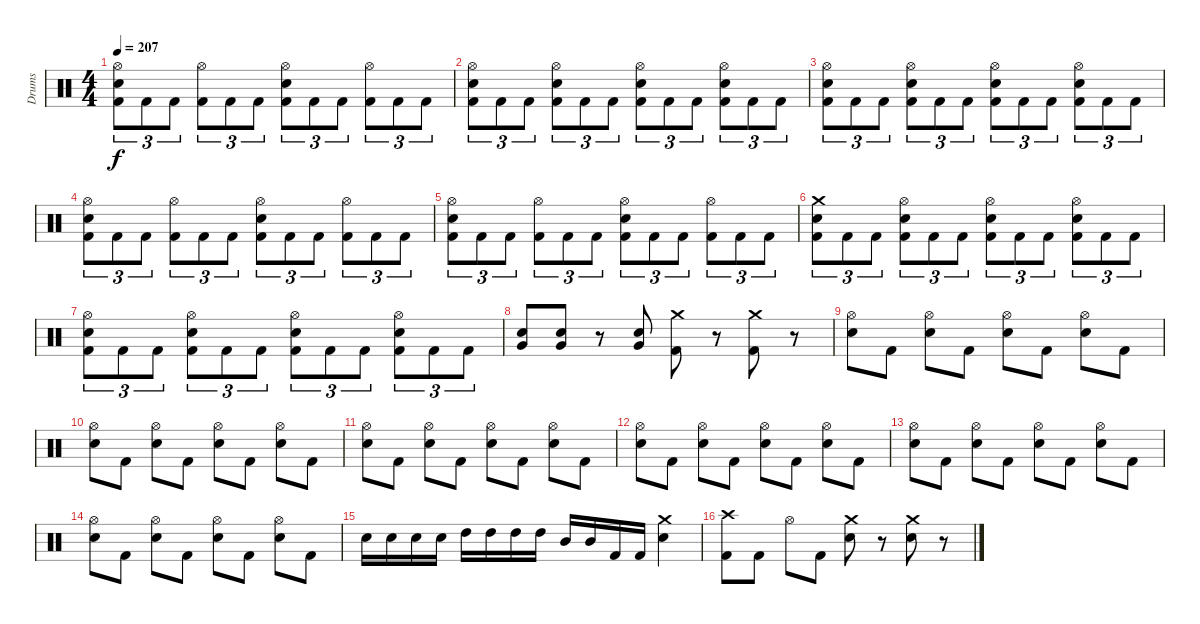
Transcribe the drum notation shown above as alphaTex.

\track ("Drums" "Drums") {instrument percussion}
\staff {score}
\articulation defaults
\ts (4 4)
\tempo 207
\clef neutral
\ks c
("Hi-Hat (open)" "Electric Snare (hit)" "Kick (hit) 2").8{tu (3 2) dy f} "Kick (hit) 2".8{tu (3 2)} "Kick (hit) 2".8{tu (3 2)} ("Hi-Hat (open)" "Kick (hit) 2").8{tu (3 2)} "Kick (hit) 2".8{tu (3 2)} "Kick (hit) 2".8{tu (3 2)} ("Hi-Hat (open)" "Electric Snare (hit)" "Kick (hit) 2").8{tu (3 2)} "Kick (hit) 2".8{tu (3 2)} "Kick (hit) 2".8{tu (3 2)} ("Hi-Hat (open)" "Kick (hit) 2").8{tu (3 2)} "Kick (hit) 2".8{tu (3 2)} "Kick (hit) 2".8{tu (3 2)} |
("Hi-Hat (open)" "Electric Snare (hit)" "Kick (hit) 2").8{tu (3 2)} "Kick (hit) 2".8{tu (3 2)} "Kick (hit) 2".8{tu (3 2)} ("Hi-Hat (open)" "Electric Snare (hit)" "Kick (hit) 2").8{tu (3 2)} "Kick (hit) 2".8{tu (3 2)} "Kick (hit) 2".8{tu (3 2)} ("Hi-Hat (open)" "Electric Snare (hit)" "Kick (hit) 2").8{tu (3 2)} "Kick (hit) 2".8{tu (3 2)} "Kick (hit) 2".8{tu (3 2)} ("Hi-Hat (open)" "Electric Snare (hit)" "Kick (hit) 2").8{tu (3 2)} "Kick (hit) 2".8{tu (3 2)} "Kick (hit) 2".8{tu (3 2)} |
("Hi-Hat (open)" "Electric Snare (hit)" "Kick (hit) 2").8{tu (3 2)} "Kick (hit) 2".8{tu (3 2)} "Kick (hit) 2".8{tu (3 2)} ("Hi-Hat (open)" "Electric Snare (hit)" "Kick (hit) 2").8{tu (3 2)} "Kick (hit) 2".8{tu (3 2)} "Kick (hit) 2".8{tu (3 2)} ("Hi-Hat (open)" "Electric Snare (hit)" "Kick (hit) 2").8{tu (3 2)} "Kick (hit) 2".8{tu (3 2)} "Kick (hit) 2".8{tu (3 2)} ("Hi-Hat (open)" "Electric Snare (hit)" "Kick (hit) 2").8{tu (3 2)} "Kick (hit) 2".8{tu (3 2)} "Kick (hit) 2".8{tu (3 2)} |
("Hi-Hat (open)" "Electric Snare (hit)" "Kick (hit) 2").8{tu (3 2)} "Kick (hit) 2".8{tu (3 2)} "Kick (hit) 2".8{tu (3 2)} ("Hi-Hat (open)" "Kick (hit) 2").8{tu (3 2)} "Kick (hit) 2".8{tu (3 2)} "Kick (hit) 2".8{tu (3 2)} ("Hi-Hat (open)" "Electric Snare (hit)" "Kick (hit) 2").8{tu (3 2)} "Kick (hit) 2".8{tu (3 2)} "Kick (hit) 2".8{tu (3 2)} ("Hi-Hat (open)" "Kick (hit) 2").8{tu (3 2)} "Kick (hit) 2".8{tu (3 2)} "Kick (hit) 2".8{tu (3 2)} |
("Hi-Hat (open)" "Electric Snare (hit)" "Kick (hit) 2").8{tu (3 2)} "Kick (hit) 2".8{tu (3 2)} "Kick (hit) 2".8{tu (3 2)} ("Hi-Hat (open)" "Kick (hit) 2").8{tu (3 2)} "Kick (hit) 2".8{tu (3 2)} "Kick (hit) 2".8{tu (3 2)} ("Hi-Hat (open)" "Electric Snare (hit)" "Kick (hit) 2").8{tu (3 2)} "Kick (hit) 2".8{tu (3 2)} "Kick (hit) 2".8{tu (3 2)} ("Hi-Hat (open)" "Kick (hit) 2").8{tu (3 2)} "Kick (hit) 2".8{tu (3 2)} "Kick (hit) 2".8{tu (3 2)} |
("Crash medium (hit)" "Electric Snare (hit)" "Kick (hit) 2").8{tu (3 2)} "Kick (hit) 2".8{tu (3 2)} "Kick (hit) 2".8{tu (3 2)} ("Hi-Hat (open)" "Electric Snare (hit)" "Kick (hit) 2").8{tu (3 2)} "Kick (hit) 2".8{tu (3 2)} "Kick (hit) 2".8{tu (3 2)} ("Hi-Hat (open)" "Electric Snare (hit)" "Kick (hit) 2").8{tu (3 2)} "Kick (hit) 2".8{tu (3 2)} "Kick (hit) 2".8{tu (3 2)} ("Hi-Hat (open)" "Electric Snare (hit)" "Kick (hit) 2").8{tu (3 2)} "Kick (hit) 2".8{tu (3 2)} "Kick (hit) 2".8{tu (3 2)} |
("Hi-Hat (open)" "Electric Snare (hit)" "Kick (hit) 2").8{tu (3 2)} "Kick (hit) 2".8{tu (3 2)} "Kick (hit) 2".8{tu (3 2)} ("Hi-Hat (open)" "Electric Snare (hit)" "Kick (hit) 2").8{tu (3 2)} "Kick (hit) 2".8{tu (3 2)} "Kick (hit) 2".8{tu (3 2)} ("Hi-Hat (open)" "Electric Snare (hit)" "Kick (hit) 2").8{tu (3 2)} "Kick (hit) 2".8{tu (3 2)} "Kick (hit) 2".8{tu (3 2)} ("Hi-Hat (open)" "Electric Snare (hit)" "Kick (hit) 2").8{tu (3 2)} "Kick (hit) 2".8{tu (3 2)} "Kick (hit) 2".8{tu (3 2)} |
("Very Low Tom (hit)" "Electric Snare (hit)").8 ("Very Low Tom (hit)" "Electric Snare (hit)").8 r.8 ("Very Low Tom (hit)" "Electric Snare (hit)").8 ("Crash medium (hit)" "Kick (hit) 2").8 r.8 ("Crash medium (hit)" "Kick (hit) 2").8 r.8 |
("Hi-Hat (open)" "Electric Snare (hit)").8 "Kick (hit) 2".8 ("Hi-Hat (open)" "Electric Snare (hit)").8 "Kick (hit) 2".8 ("Hi-Hat (open)" "Electric Snare (hit)").8 "Kick (hit) 2".8 ("Hi-Hat (open)" "Electric Snare (hit)").8 "Kick (hit) 2".8 |
("Hi-Hat (open)" "Electric Snare (hit)").8 "Kick (hit) 2".8 ("Hi-Hat (open)" "Electric Snare (hit)").8 "Kick (hit) 2".8 ("Hi-Hat (open)" "Electric Snare (hit)").8 "Kick (hit) 2".8 ("Hi-Hat (open)" "Electric Snare (hit)").8 "Kick (hit) 2".8 |
("Hi-Hat (open)" "Electric Snare (hit)").8 "Kick (hit) 2".8 ("Hi-Hat (open)" "Electric Snare (hit)").8 "Kick (hit) 2".8 ("Hi-Hat (open)" "Electric Snare (hit)").8 "Kick (hit) 2".8 ("Hi-Hat (open)" "Electric Snare (hit)").8 "Kick (hit) 2".8 |
("Hi-Hat (open)" "Electric Snare (hit)").8 "Kick (hit) 2".8 ("Hi-Hat (open)" "Electric Snare (hit)").8 "Kick (hit) 2".8 ("Hi-Hat (open)" "Electric Snare (hit)").8 "Kick (hit) 2".8 ("Hi-Hat (open)" "Electric Snare (hit)").8 "Kick (hit) 2".8 |
("Hi-Hat (open)" "Electric Snare (hit)").8 "Kick (hit) 2".8 ("Hi-Hat (open)" "Electric Snare (hit)").8 "Kick (hit) 2".8 ("Hi-Hat (open)" "Electric Snare (hit)").8 "Kick (hit) 2".8 ("Hi-Hat (open)" "Electric Snare (hit)").8 "Kick (hit) 2".8 |
("Hi-Hat (open)" "Electric Snare (hit)").8 "Kick (hit) 2".8 ("Hi-Hat (open)" "Electric Snare (hit)").8 "Kick (hit) 2".8 ("Hi-Hat (open)" "Electric Snare (hit)").8 "Kick (hit) 2".8 ("Hi-Hat (open)" "Electric Snare (hit)").8 "Kick (hit) 2".8 |
"Electric Snare (hit)".16 "Electric Snare (hit)".16 "Electric Snare (hit)".16 "Electric Snare (hit)".16 "High Tom (hit)".16 "High Tom (hit)".16 "High Tom (hit)".16 "High Tom (hit)".16 "Mid Tom (hit)".16 "Mid Tom (hit)".16 "Kick (hit) 2".16 "Kick (hit) 2".16 ("Crash medium (hit)" "Electric Snare (hit)").4 |
("Crash high (hit)" "Kick (hit) 2").8 "Kick (hit) 2".8 "Hi-Hat (open)".8 "Kick (hit) 2".8 ("Crash medium (hit)" "Electric Snare (hit)").8 r.8 ("Crash medium (hit)" "Electric Snare (hit)").8 r.8
